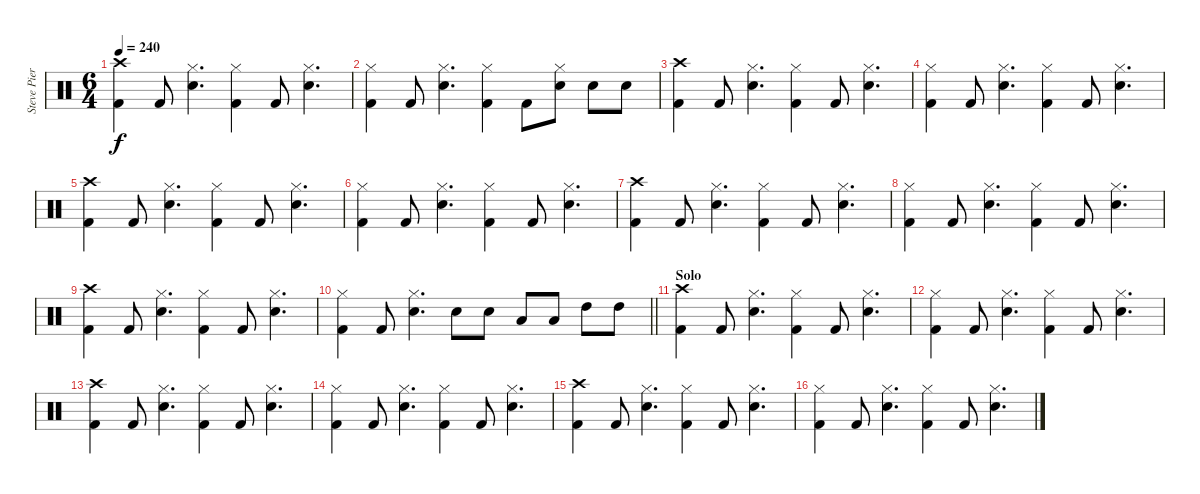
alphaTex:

\track ("Steve Pierce" "Steve Pier") {instrument percussion}
\staff {score}
\articulation defaults
\ts (6 4)
\tempo 240
\clef neutral
\ks c
("Crash high (hit)" "Kick (hit) 2").4{dy f} "Kick (hit) 2".8 ("Hi-Hat (closed)" "Snare (hit) 2").4{d} ("Hi-Hat (closed)" "Kick (hit) 2").4 "Kick (hit) 2".8 ("Hi-Hat (closed)" "Snare (hit) 2").4{d} |
("Hi-Hat (closed)" "Kick (hit) 2").4 "Kick (hit) 2".8 ("Hi-Hat (closed)" "Snare (hit) 2").4{d} ("Hi-Hat (closed)" "Kick (hit) 2").4 "Kick (hit) 2".8 ("Hi-Hat (closed)" "Snare (hit) 2").8 "Snare (hit) 2".8 "Snare (hit) 2".8 |
("Crash high (hit)" "Kick (hit) 2").4 "Kick (hit) 2".8 ("Hi-Hat (closed)" "Snare (hit) 2").4{d} ("Hi-Hat (closed)" "Kick (hit) 2").4 "Kick (hit) 2".8 ("Hi-Hat (closed)" "Snare (hit) 2").4{d} |
("Hi-Hat (closed)" "Kick (hit) 2").4 "Kick (hit) 2".8 ("Hi-Hat (closed)" "Snare (hit) 2").4{d} ("Hi-Hat (closed)" "Kick (hit) 2").4 "Kick (hit) 2".8 ("Hi-Hat (closed)" "Snare (hit) 2").4{d} |
("Crash high (hit)" "Kick (hit) 2").4 "Kick (hit) 2".8 ("Hi-Hat (closed)" "Snare (hit) 2").4{d} ("Hi-Hat (closed)" "Kick (hit) 2").4 "Kick (hit) 2".8 ("Hi-Hat (closed)" "Snare (hit) 2").4{d} |
("Hi-Hat (closed)" "Kick (hit) 2").4 "Kick (hit) 2".8 ("Hi-Hat (closed)" "Snare (hit) 2").4{d} ("Hi-Hat (closed)" "Kick (hit) 2").4 "Kick (hit) 2".8 ("Hi-Hat (closed)" "Snare (hit) 2").4{d} |
("Crash high (hit)" "Kick (hit) 2").4 "Kick (hit) 2".8 ("Hi-Hat (closed)" "Snare (hit) 2").4{d} ("Hi-Hat (closed)" "Kick (hit) 2").4 "Kick (hit) 2".8 ("Hi-Hat (closed)" "Snare (hit) 2").4{d} |
("Hi-Hat (closed)" "Kick (hit) 2").4 "Kick (hit) 2".8 ("Hi-Hat (closed)" "Snare (hit) 2").4{d} ("Hi-Hat (closed)" "Kick (hit) 2").4 "Kick (hit) 2".8 ("Hi-Hat (closed)" "Snare (hit) 2").4{d} |
("Crash high (hit)" "Kick (hit) 2").4 "Kick (hit) 2".8 ("Hi-Hat (closed)" "Snare (hit) 2").4{d} ("Hi-Hat (closed)" "Kick (hit) 2").4 "Kick (hit) 2".8 ("Hi-Hat (closed)" "Snare (hit) 2").4{d} |
\barLineRight lightlight
("Hi-Hat (closed)" "Kick (hit) 2").4 "Kick (hit) 2".8 ("Hi-Hat (closed)" "Snare (hit) 2").4{d} "Snare (hit) 2".8 "Snare (hit) 2".8 "Low Tom (hit)".8 "Low Tom (hit)".8 "High Tom (hit)".8 "High Tom (hit)".8 |
\section ("" "Solo")
("Crash high (hit)" "Kick (hit) 2").4 "Kick (hit) 2".8 ("Hi-Hat (closed)" "Snare (hit) 2").4{d} ("Hi-Hat (closed)" "Kick (hit) 2").4 "Kick (hit) 2".8 ("Hi-Hat (closed)" "Snare (hit) 2").4{d} |
("Hi-Hat (closed)" "Kick (hit) 2").4 "Kick (hit) 2".8 ("Hi-Hat (closed)" "Snare (hit) 2").4{d} ("Hi-Hat (closed)" "Kick (hit) 2").4 "Kick (hit) 2".8 ("Hi-Hat (closed)" "Snare (hit) 2").4{d} |
("Crash high (hit)" "Kick (hit) 2").4 "Kick (hit) 2".8 ("Hi-Hat (closed)" "Snare (hit) 2").4{d} ("Hi-Hat (closed)" "Kick (hit) 2").4 "Kick (hit) 2".8 ("Hi-Hat (closed)" "Snare (hit) 2").4{d} |
("Hi-Hat (closed)" "Kick (hit) 2").4 "Kick (hit) 2".8 ("Hi-Hat (closed)" "Snare (hit) 2").4{d} ("Hi-Hat (closed)" "Kick (hit) 2").4 "Kick (hit) 2".8 ("Hi-Hat (closed)" "Snare (hit) 2").4{d} |
("Crash high (hit)" "Kick (hit) 2").4 "Kick (hit) 2".8 ("Hi-Hat (closed)" "Snare (hit) 2").4{d} ("Hi-Hat (closed)" "Kick (hit) 2").4 "Kick (hit) 2".8 ("Hi-Hat (closed)" "Snare (hit) 2").4{d} |
("Hi-Hat (closed)" "Kick (hit) 2").4 "Kick (hit) 2".8 ("Hi-Hat (closed)" "Snare (hit) 2").4{d} ("Hi-Hat (closed)" "Kick (hit) 2").4 "Kick (hit) 2".8 ("Hi-Hat (closed)" "Snare (hit) 2").4{d}
